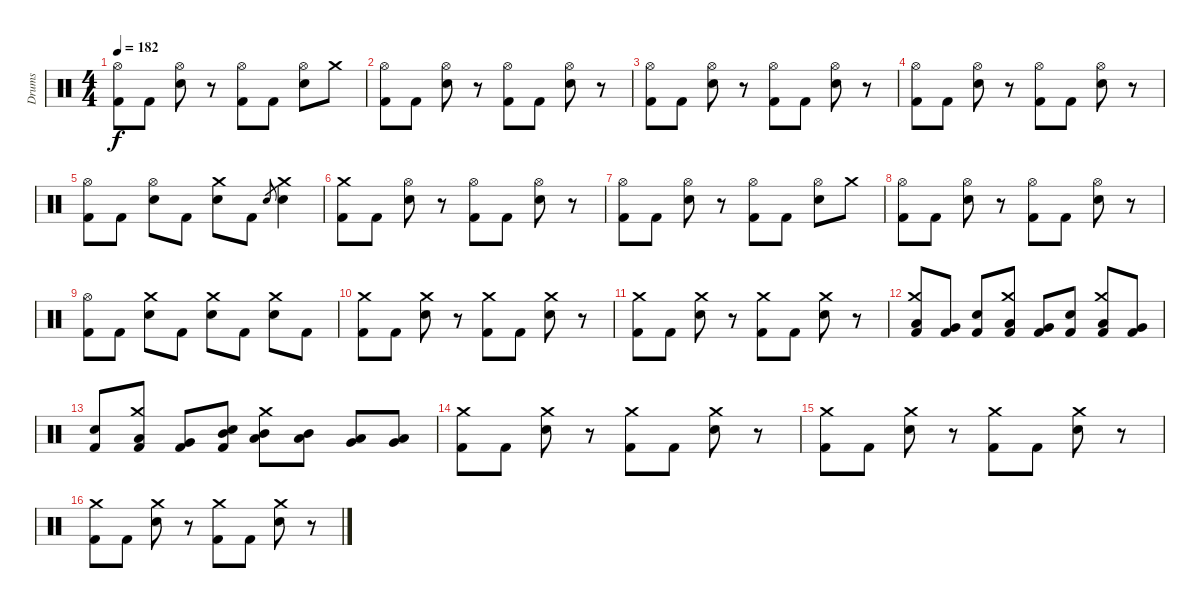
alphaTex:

\track ("Drums" "Drums") {instrument percussion}
\staff {score}
\articulation defaults
\ts (4 4)
\tempo 182
\clef neutral
\ks c
("Hi-Hat (open)" "Kick (hit) 2").8{dy f} "Kick (hit) 2".8 ("Hi-Hat (open)" "Snare (hit) 2").8 r.8 ("Hi-Hat (open)" "Kick (hit) 2").8 "Kick (hit) 2".8 ("Hi-Hat (open)" "Snare (hit) 2").8 "Crash medium (hit)".8 |
("Hi-Hat (open)" "Kick (hit) 2").8 "Kick (hit) 2".8 ("Hi-Hat (open)" "Snare (hit) 2").8 r.8 ("Hi-Hat (open)" "Kick (hit) 2").8 "Kick (hit) 2".8 ("Hi-Hat (open)" "Snare (hit) 2").8 r.8 |
("Hi-Hat (open)" "Kick (hit) 2").8 "Kick (hit) 2".8 ("Hi-Hat (open)" "Snare (hit) 2").8 r.8 ("Hi-Hat (open)" "Kick (hit) 2").8 "Kick (hit) 2".8 ("Hi-Hat (open)" "Snare (hit) 2").8 r.8 |
("Hi-Hat (open)" "Kick (hit) 2").8 "Kick (hit) 2".8 ("Hi-Hat (open)" "Snare (hit) 2").8 r.8 ("Hi-Hat (open)" "Kick (hit) 2").8 "Kick (hit) 2".8 ("Hi-Hat (open)" "Snare (hit) 2").8 r.8 |
("Hi-Hat (open)" "Kick (hit) 2").8 "Kick (hit) 2".8 ("Hi-Hat (open)" "Snare (hit) 2").8 "Kick (hit) 2".8 ("Crash medium (hit)" "Snare (hit) 2").8 "Kick (hit) 2".8 "Snare (hit) 2".8{gr} ("Crash medium (hit)" "Snare (hit) 2").4 |
("Crash medium (hit)" "Kick (hit) 2").8 "Kick (hit) 2".8 ("Hi-Hat (open)" "Snare (hit) 2").8 r.8 ("Hi-Hat (open)" "Kick (hit) 2").8 "Kick (hit) 2".8 ("Hi-Hat (open)" "Snare (hit) 2").8 r.8 |
("Hi-Hat (open)" "Kick (hit) 2").8 "Kick (hit) 2".8 ("Hi-Hat (open)" "Snare (hit) 2").8 r.8 ("Hi-Hat (open)" "Kick (hit) 2").8 "Kick (hit) 2".8 ("Hi-Hat (open)" "Snare (hit) 2").8 "Crash medium (hit)".8 |
("Hi-Hat (open)" "Kick (hit) 2").8 "Kick (hit) 2".8 ("Hi-Hat (open)" "Snare (hit) 2").8 r.8 ("Hi-Hat (open)" "Kick (hit) 2").8 "Kick (hit) 2".8 ("Hi-Hat (open)" "Snare (hit) 2").8 r.8 |
("Hi-Hat (open)" "Kick (hit) 2").8 "Kick (hit) 2".8 ("Crash medium (hit)" "Snare (hit) 2").8 "Kick (hit) 2".8 ("Crash medium (hit)" "Snare (hit) 2").8 "Kick (hit) 2".8 ("Crash medium (hit)" "Snare (hit) 2").8 "Kick (hit) 2".8 |
("Crash medium (hit)" "Kick (hit) 2").8 "Kick (hit) 2".8 ("Crash medium (hit)" "Snare (hit) 2").8 r.8 ("Crash medium (hit)" "Kick (hit) 2").8 "Kick (hit) 2".8 ("Crash medium (hit)" "Snare (hit) 2").8 r.8 |
("Crash medium (hit)" "Kick (hit) 2").8 "Kick (hit) 2".8 ("Crash medium (hit)" "Snare (hit) 2").8 r.8 ("Crash medium (hit)" "Kick (hit) 2").8 "Kick (hit) 2".8 ("Crash medium (hit)" "Snare (hit) 2").8 r.8 |
("Crash medium (hit)" "Low Tom (hit)" "Kick (hit) 2").8 ("Very Low Tom (hit)" "Kick (hit) 2").8 ("Snare (hit) 2" "Kick (hit) 2").8 ("Crash medium (hit)" "Low Tom (hit)" "Kick (hit) 2").8 ("Very Low Tom (hit)" "Kick (hit) 2").8 ("Snare (hit) 2" "Kick (hit) 2").8 ("Crash medium (hit)" "Low Tom (hit)" "Kick (hit) 2").8 ("Very Low Tom (hit)" "Kick (hit) 2").8 |
("Snare (hit) 2" "Kick (hit) 2").8 ("Crash medium (hit)" "Low Tom (hit)" "Kick (hit) 2").8 ("Very Low Tom (hit)" "Kick (hit) 2").8 ("Mid Tom (hit)" "Snare (hit) 2" "Kick (hit) 2").8 ("Crash medium (hit)" "Mid Tom (hit)" "Low Tom (hit)").8 ("Low Tom (hit)" "Mid Tom (hit)").8 ("Very Low Tom (hit)" "Low Tom (hit)").8 ("Low Floor Tom (hit)" "Very Low Tom (hit)").8 |
("Crash medium (hit)" "Kick (hit) 2").8 "Kick (hit) 2".8 ("Crash medium (hit)" "Snare (hit) 2").8 r.8 ("Crash medium (hit)" "Kick (hit) 2").8 "Kick (hit) 2".8 ("Crash medium (hit)" "Snare (hit) 2").8 r.8 |
("Crash medium (hit)" "Kick (hit) 2").8 "Kick (hit) 2".8 ("Crash medium (hit)" "Snare (hit) 2").8 r.8 ("Crash medium (hit)" "Kick (hit) 2").8 "Kick (hit) 2".8 ("Crash medium (hit)" "Snare (hit) 2").8 r.8 |
("Crash medium (hit)" "Kick (hit) 2").8 "Kick (hit) 2".8 ("Crash medium (hit)" "Snare (hit) 2").8 r.8 ("Crash medium (hit)" "Kick (hit) 2").8 "Kick (hit) 2".8 ("Crash medium (hit)" "Snare (hit) 2").8 r.8
